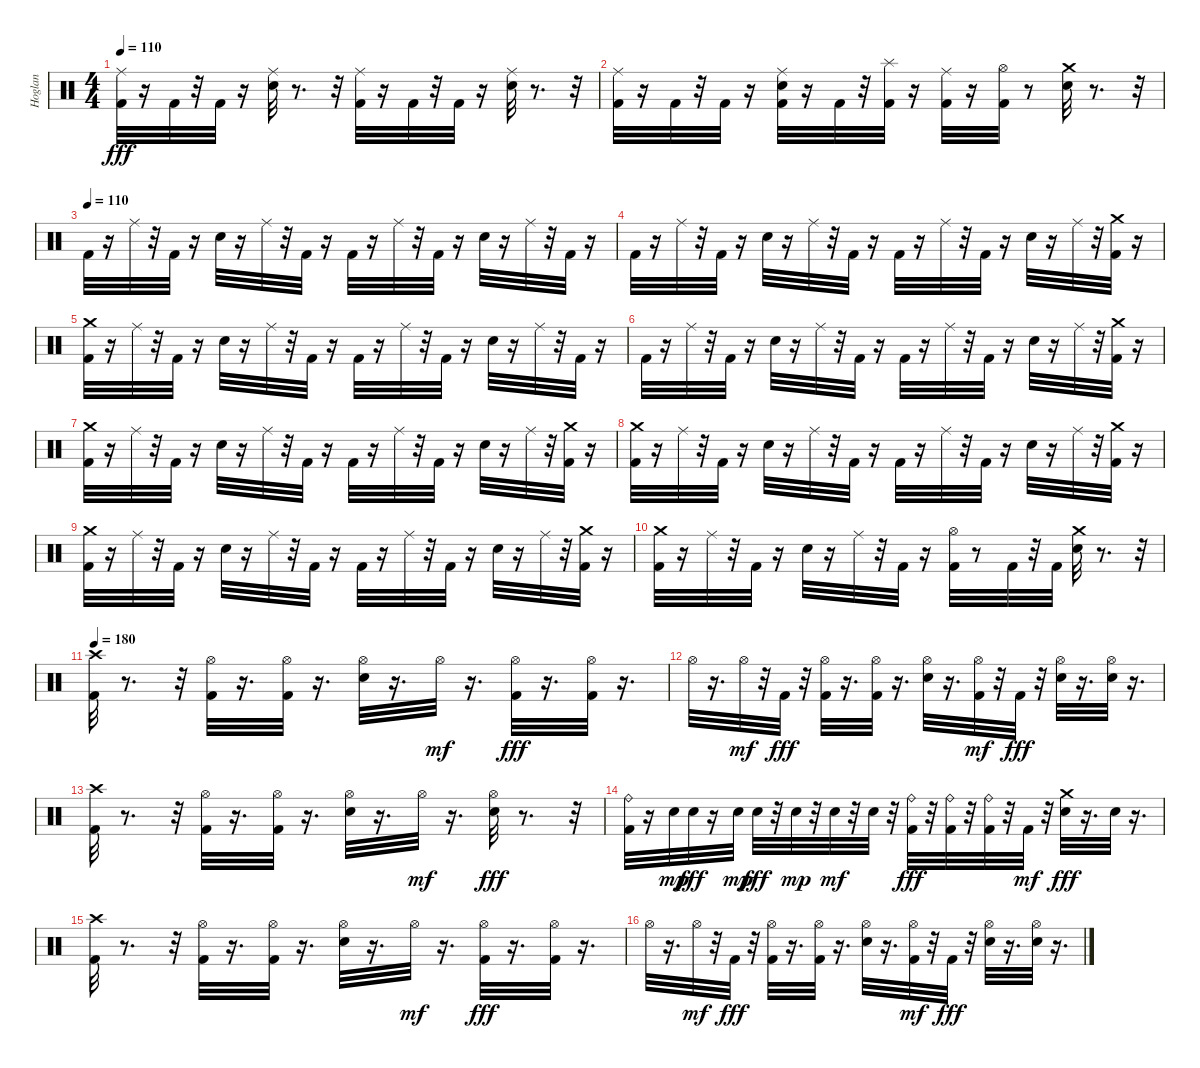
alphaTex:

\track ("Hoglan" "Hoglan") {instrument percussion}
\staff {score}
\articulation defaults
\ts (4 4)
\tempo 110
\clef neutral
\ks c
("Kick (hit) 2" "Ride (middle)").32{dy fff} r.16 "Kick (hit) 2".32 r.32 "Kick (hit) 2".32 r.16 ("Electric Snare (hit)" "Ride (middle)").32 r.8{d} r.32 ("Kick (hit) 2" "Ride (middle)").32 r.16 "Kick (hit) 2".32 r.32 "Kick (hit) 2".32 r.16 ("Electric Snare (hit)" "Ride (middle)").32 r.8{d} r.32 |
("Kick (hit) 2" "Ride (middle)").32 r.16 "Kick (hit) 2".32 r.32 "Kick (hit) 2".32 r.16 ("Electric Snare (hit)" "Kick (hit) 2" "Ride (middle)").32 r.16 "Kick (hit) 2".32 r.32 ("Kick (hit) 2" "Splash (hit)").32 r.16 ("Kick (hit) 2" "Ride (middle)").32 r.16 ("Hi-Hat (open)" "Kick (hit) 2").32 r.8 ("Crash medium (hit)" "Electric Snare (hit)").32 r.8{d} r.32 |
\tempo (110)
"Kick (hit) 2".32 r.16 "Ride (middle)".32 r.32 "Kick (hit) 2".32 r.16 "Electric Snare (hit)".32 r.16 "Ride (middle)".32 r.32 "Kick (hit) 2".32 r.16 "Kick (hit) 2".32 r.16 "Ride (middle)".32 r.32 "Kick (hit) 2".32 r.16 "Electric Snare (hit)".32 r.16 "Ride (middle)".32 r.32 "Kick (hit) 2".32 r.16 |
"Kick (hit) 2".32 r.16 "Ride (middle)".32 r.32 "Kick (hit) 2".32 r.16 "Electric Snare (hit)".32 r.16 "Ride (middle)".32 r.32 "Kick (hit) 2".32 r.16 "Kick (hit) 2".32 r.16 "Ride (middle)".32 r.32 "Kick (hit) 2".32 r.16 "Electric Snare (hit)".32 r.16 "Ride (middle)".32 r.32 ("Crash medium (hit)" "Kick (hit) 2").32 r.16 |
("Crash medium (hit)" "Kick (hit) 2").32 r.16 "Ride (middle)".32 r.32 "Kick (hit) 2".32 r.16 "Electric Snare (hit)".32 r.16 "Ride (middle)".32 r.32 "Kick (hit) 2".32 r.16 "Kick (hit) 2".32 r.16 "Ride (middle)".32 r.32 "Kick (hit) 2".32 r.16 "Electric Snare (hit)".32 r.16 "Ride (middle)".32 r.32 "Kick (hit) 2".32 r.16 |
"Kick (hit) 2".32 r.16 "Ride (middle)".32 r.32 "Kick (hit) 2".32 r.16 "Electric Snare (hit)".32 r.16 "Ride (middle)".32 r.32 "Kick (hit) 2".32 r.16 "Kick (hit) 2".32 r.16 "Ride (middle)".32 r.32 "Kick (hit) 2".32 r.16 "Electric Snare (hit)".32 r.16 "Ride (middle)".32 r.32 ("Crash medium (hit)" "Kick (hit) 2").32 r.16 |
("Crash medium (hit)" "Kick (hit) 2").32 r.16 "Ride (middle)".32 r.32 "Kick (hit) 2".32 r.16 "Electric Snare (hit)".32 r.16 "Ride (middle)".32 r.32 "Kick (hit) 2".32 r.16 "Kick (hit) 2".32 r.16 "Ride (middle)".32 r.32 "Kick (hit) 2".32 r.16 "Electric Snare (hit)".32 r.16 "Ride (middle)".32 r.32 ("Crash medium (hit)" "Kick (hit) 2").32 r.16 |
("Crash medium (hit)" "Kick (hit) 2").32 r.16 "Ride (middle)".32 r.32 "Kick (hit) 2".32 r.16 "Electric Snare (hit)".32 r.16 "Ride (middle)".32 r.32 "Kick (hit) 2".32 r.16 "Kick (hit) 2".32 r.16 "Ride (middle)".32 r.32 "Kick (hit) 2".32 r.16 "Electric Snare (hit)".32 r.16 "Ride (middle)".32 r.32 ("Crash medium (hit)" "Kick (hit) 2").32 r.16 |
("Crash medium (hit)" "Kick (hit) 2").32 r.16 "Ride (middle)".32 r.32 "Kick (hit) 2".32 r.16 "Electric Snare (hit)".32 r.16 "Ride (middle)".32 r.32 "Kick (hit) 2".32 r.16 "Kick (hit) 2".32 r.16 "Ride (middle)".32 r.32 "Kick (hit) 2".32 r.16 "Electric Snare (hit)".32 r.16 "Ride (middle)".32 r.32 ("Crash medium (hit)" "Kick (hit) 2").32 r.16 |
("Crash medium (hit)" "Kick (hit) 2").32 r.16 "Ride (middle)".32 r.32 "Kick (hit) 2".32 r.16 "Electric Snare (hit)".32 r.16 "Ride (middle)".32 r.32 "Kick (hit) 2".32 r.16 ("Hi-Hat (open)" "Kick (hit) 2").32 r.8 "Kick (hit) 2".32 r.32 "Kick (hit) 2".32 ("Crash medium (hit)" "Electric Snare (hit)").32 r.8{d} r.32 |
\tempo 180
("Crash high (hit)" "Kick (hit) 2").32 r.8{d} r.32 ("Hi-Hat (open)" "Kick (hit) 2").32 r.16{d} ("Hi-Hat (open)" "Kick (hit) 2").32 r.16{d} ("Hi-Hat (open)" "Electric Snare (hit)").32 r.16{d} "Hi-Hat (open)".32{dy mf} r.16{d} ("Hi-Hat (open)" "Kick (hit) 2").32{dy fff} r.16{d} ("Hi-Hat (open)" "Kick (hit) 2").32 r.16{d} |
"Hi-Hat (open)".32 r.16{d} "Hi-Hat (open)".32{dy mf} r.32 "Kick (hit) 2".32{dy fff} r.32 ("Hi-Hat (open)" "Kick (hit) 2").32 r.16{d} ("Hi-Hat (open)" "Kick (hit) 2").32 r.16{d} ("Hi-Hat (open)" "Electric Snare (hit)").32 r.16{d} ("Hi-Hat (open)" "Kick (hit) 2").32{dy mf} r.32 "Kick (hit) 2".32{dy fff} r.32 ("Hi-Hat (open)" "Electric Snare (hit)").32 r.16{d} ("Hi-Hat (open)" "Electric Snare (hit)").32 r.16{d} |
("Crash high (hit)" "Kick (hit) 2").32 r.8{d} r.32 ("Hi-Hat (open)" "Kick (hit) 2").32 r.16{d} ("Hi-Hat (open)" "Kick (hit) 2").32 r.16{d} ("Hi-Hat (open)" "Electric Snare (hit)").32 r.16{d} "Hi-Hat (open)".32{dy mf} r.16{d} ("Hi-Hat (open)" "Electric Snare (hit)").32{dy fff} r.8{d} r.32 |
("Ride (bell)" "Kick (hit) 2").32 r.16 "Electric Snare (hit)".32{dy mp} "Electric Snare (hit)".32{dy fff} r.16 "Electric Snare (hit)".32{dy mp} "Electric Snare (hit)".32{dy fff} r.32 "Electric Snare (hit)".32{dy mp} r.32 "Electric Snare (hit)".32{dy mf} r.32 "Electric Snare (hit)".32 r.32 ("Ride (bell)" "Kick (hit) 2").32{dy fff} r.32 ("Ride (bell)" "Kick (hit) 2").32 r.32 ("Ride (bell)" "Kick (hit) 2").32 r.32 "Kick (hit) 2".32{dy mf} r.32 ("Crash medium (hit)" "Electric Snare (hit)").32{dy fff} r.16{d} "Electric Snare (hit)".32 r.16{d} |
("Crash high (hit)" "Kick (hit) 2").32 r.8{d} r.32 ("Hi-Hat (open)" "Kick (hit) 2").32 r.16{d} ("Hi-Hat (open)" "Kick (hit) 2").32 r.16{d} ("Hi-Hat (open)" "Electric Snare (hit)").32 r.16{d} "Hi-Hat (open)".32{dy mf} r.16{d} ("Hi-Hat (open)" "Kick (hit) 2").32{dy fff} r.16{d} ("Hi-Hat (open)" "Kick (hit) 2").32 r.16{d} |
"Hi-Hat (open)".32 r.16{d} "Hi-Hat (open)".32{dy mf} r.32 "Kick (hit) 2".32{dy fff} r.32 ("Hi-Hat (open)" "Kick (hit) 2").32 r.16{d} ("Hi-Hat (open)" "Kick (hit) 2").32 r.16{d} ("Hi-Hat (open)" "Electric Snare (hit)").32 r.16{d} ("Hi-Hat (open)" "Kick (hit) 2").32{dy mf} r.32 "Kick (hit) 2".32{dy fff} r.32 ("Hi-Hat (open)" "Electric Snare (hit)").32 r.16{d} ("Hi-Hat (open)" "Electric Snare (hit)").32 r.16{d}
